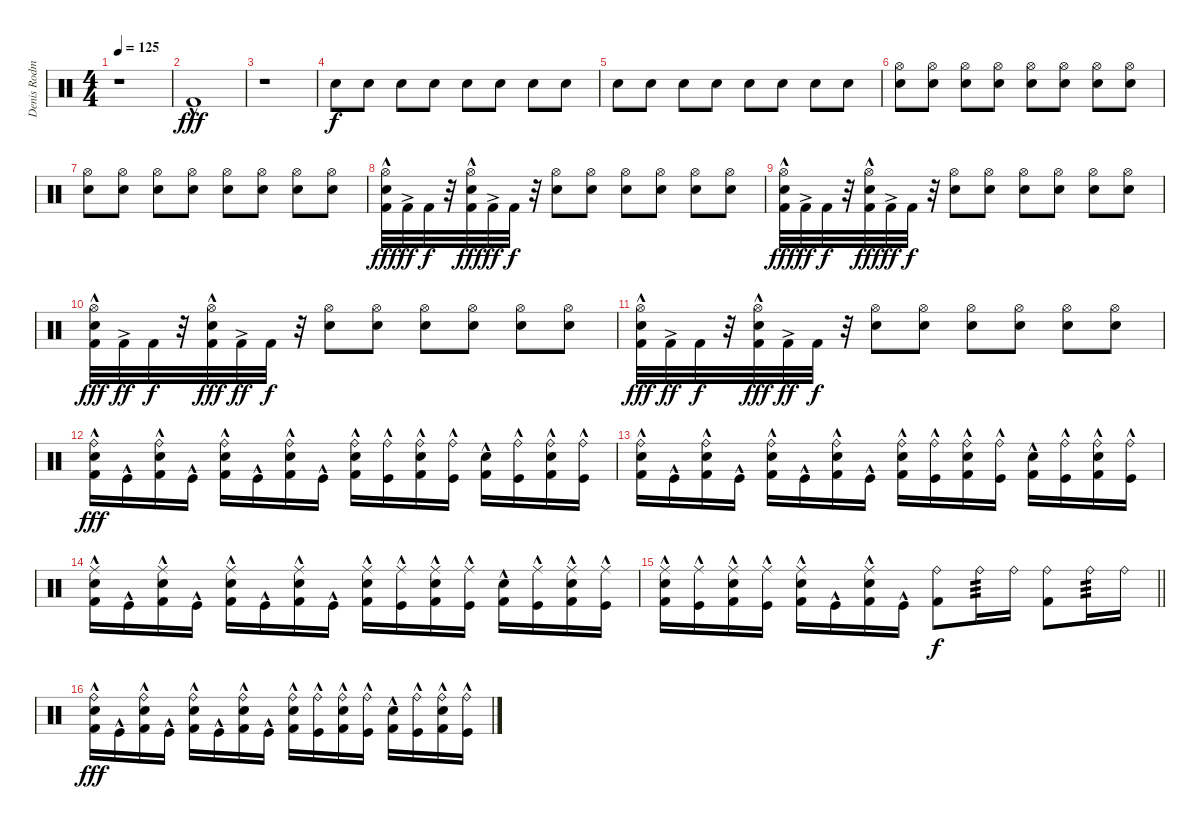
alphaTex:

\track ("Denis Rodman" "Denis Rodm") {instrument percussion}
\staff {score}
\articulation defaults
\ts (4 4)
\tempo 125
\clef neutral
\ks c
r.1{dy fff} |
"Kick (hit) 2"{hac}.1 |
r.1 |
"Snare (hit) 2".8{dy f} "Snare (hit) 2".8 "Snare (hit) 2".8 "Snare (hit) 2".8 "Snare (hit) 2".8 "Snare (hit) 2".8 "Snare (hit) 2".8 "Snare (hit) 2".8 |
"Snare (hit) 2".8 "Snare (hit) 2".8 "Snare (hit) 2".8 "Snare (hit) 2".8 "Snare (hit) 2".8 "Snare (hit) 2".8 "Snare (hit) 2".8 "Snare (hit) 2".8 |
("Snare (hit) 2" "Hi-Hat (open)").8 ("Snare (hit) 2" "Hi-Hat (open)").8 ("Snare (hit) 2" "Hi-Hat (open)").8 ("Snare (hit) 2" "Hi-Hat (open)").8 ("Snare (hit) 2" "Hi-Hat (open)").8 ("Snare (hit) 2" "Hi-Hat (open)").8 ("Snare (hit) 2" "Hi-Hat (open)").8 ("Snare (hit) 2" "Hi-Hat (open)").8 |
("Snare (hit) 2" "Hi-Hat (open)").8 ("Snare (hit) 2" "Hi-Hat (open)").8 ("Snare (hit) 2" "Hi-Hat (open)").8 ("Snare (hit) 2" "Hi-Hat (open)").8 ("Snare (hit) 2" "Hi-Hat (open)").8 ("Snare (hit) 2" "Hi-Hat (open)").8 ("Snare (hit) 2" "Hi-Hat (open)").8 ("Snare (hit) 2" "Hi-Hat (open)").8 |
("Kick (hit) 2"{hac} "Hi-Hat (open)" "Snare (hit) 2").32{dy fff} "Kick (hit) 2"{ac}.32{dy ff} "Kick (hit) 2".32{dy f} r.32 ("Kick (hit) 2"{hac} "Hi-Hat (open)" "Snare (hit) 2").32{dy fff} "Kick (hit) 2"{ac}.32{dy ff} "Kick (hit) 2".32{dy f} r.32 ("Hi-Hat (open)" "Snare (hit) 2").8 ("Hi-Hat (open)" "Snare (hit) 2").8 ("Hi-Hat (open)" "Snare (hit) 2").8 ("Hi-Hat (open)" "Snare (hit) 2").8 ("Hi-Hat (open)" "Snare (hit) 2").8 ("Hi-Hat (open)" "Snare (hit) 2").8 |
("Kick (hit) 2"{hac} "Hi-Hat (open)" "Snare (hit) 2").32{dy fff} "Kick (hit) 2"{ac}.32{dy ff} "Kick (hit) 2".32{dy f} r.32 ("Kick (hit) 2"{hac} "Hi-Hat (open)" "Snare (hit) 2").32{dy fff} "Kick (hit) 2"{ac}.32{dy ff} "Kick (hit) 2".32{dy f} r.32 ("Hi-Hat (open)" "Snare (hit) 2").8 ("Hi-Hat (open)" "Snare (hit) 2").8 ("Hi-Hat (open)" "Snare (hit) 2").8 ("Hi-Hat (open)" "Snare (hit) 2").8 ("Hi-Hat (open)" "Snare (hit) 2").8 ("Hi-Hat (open)" "Snare (hit) 2").8 |
("Kick (hit) 2"{hac} "Hi-Hat (open)" "Snare (hit) 2").32{dy fff} "Kick (hit) 2"{ac}.32{dy ff} "Kick (hit) 2".32{dy f} r.32 ("Kick (hit) 2"{hac} "Hi-Hat (open)" "Snare (hit) 2").32{dy fff} "Kick (hit) 2"{ac}.32{dy ff} "Kick (hit) 2".32{dy f} r.32 ("Hi-Hat (open)" "Snare (hit) 2").8 ("Hi-Hat (open)" "Snare (hit) 2").8 ("Hi-Hat (open)" "Snare (hit) 2").8 ("Hi-Hat (open)" "Snare (hit) 2").8 ("Hi-Hat (open)" "Snare (hit) 2").8 ("Hi-Hat (open)" "Snare (hit) 2").8 |
("Kick (hit) 2"{hac} "Hi-Hat (open)" "Snare (hit) 2").32{dy fff} "Kick (hit) 2"{ac}.32{dy ff} "Kick (hit) 2".32{dy f} r.32 ("Kick (hit) 2"{hac} "Hi-Hat (open)" "Snare (hit) 2").32{dy fff} "Kick (hit) 2"{ac}.32{dy ff} "Kick (hit) 2".32{dy f} r.32 ("Hi-Hat (open)" "Snare (hit) 2").8 ("Hi-Hat (open)" "Snare (hit) 2").8 ("Hi-Hat (open)" "Snare (hit) 2").8 ("Hi-Hat (open)" "Snare (hit) 2").8 ("Hi-Hat (open)" "Snare (hit) 2").8 ("Hi-Hat (open)" "Snare (hit) 2").8 |
("Ride (bell)"{hac} "Kick (hit) 2"{hac} "Snare (hit) 2").16{dy fff} "Kick (hit)"{hac}.16 ("Ride (bell)"{hac} "Kick (hit) 2"{hac} "Snare (hit) 2").16 "Kick (hit)"{hac}.16 ("Ride (bell)"{hac} "Kick (hit) 2"{hac} "Snare (hit) 2").16 "Kick (hit)"{hac}.16 ("Ride (bell)"{hac} "Kick (hit) 2"{hac} "Snare (hit) 2").16 "Kick (hit)"{hac}.16 ("Ride (bell)"{hac} "Kick (hit) 2"{hac} "Snare (hit) 2").16 ("Ride (bell)"{hac} "Kick (hit)"{hac}).16 ("Ride (bell)"{hac} "Kick (hit) 2"{hac} "Snare (hit) 2").16 ("Ride (bell)"{hac} "Kick (hit)"{hac}).16 ("Kick (hit) 2"{hac} "Snare (hit) 2").16 ("Ride (bell)"{hac} "Kick (hit)"{hac}).16 ("Ride (bell)"{hac} "Kick (hit) 2"{hac} "Snare (hit) 2").16 ("Ride (bell)"{hac} "Kick (hit)"{hac}).16 |
("Ride (bell)"{hac} "Kick (hit) 2"{hac} "Snare (hit) 2").16 "Kick (hit)"{hac}.16 ("Ride (bell)"{hac} "Kick (hit) 2"{hac} "Snare (hit) 2").16 "Kick (hit)"{hac}.16 ("Ride (bell)"{hac} "Kick (hit) 2"{hac} "Snare (hit) 2").16 "Kick (hit)"{hac}.16 ("Ride (bell)"{hac} "Kick (hit) 2"{hac} "Snare (hit) 2").16 "Kick (hit)"{hac}.16 ("Ride (bell)"{hac} "Kick (hit) 2"{hac} "Snare (hit) 2").16 ("Ride (bell)"{hac} "Kick (hit)"{hac}).16 ("Ride (bell)"{hac} "Kick (hit) 2"{hac} "Snare (hit) 2").16 ("Ride (bell)"{hac} "Kick (hit)"{hac}).16 ("Kick (hit) 2"{hac} "Snare (hit) 2").16 ("Ride (bell)"{hac} "Kick (hit)"{hac}).16 ("Ride (bell)"{hac} "Kick (hit) 2"{hac} "Snare (hit) 2").16 ("Ride (bell)"{hac} "Kick (hit)"{hac}).16 |
("Ride (middle)"{hac} "Kick (hit) 2"{hac} "Snare (hit) 2").16 "Kick (hit)"{hac}.16 ("Ride (middle)"{hac} "Kick (hit) 2"{hac} "Snare (hit) 2").16 "Kick (hit)"{hac}.16 ("Ride (middle)"{hac} "Kick (hit) 2"{hac} "Snare (hit) 2").16 "Kick (hit)"{hac}.16 ("Ride (middle)"{hac} "Kick (hit) 2"{hac} "Snare (hit) 2").16 "Kick (hit)"{hac}.16 ("Ride (middle)"{hac} "Kick (hit) 2"{hac} "Snare (hit) 2").16 ("Ride (middle)"{hac} "Kick (hit)"{hac}).16 ("Ride (middle)"{hac} "Kick (hit) 2"{hac} "Snare (hit) 2").16 ("Ride (middle)"{hac} "Kick (hit)"{hac}).16 ("Kick (hit) 2"{hac} "Snare (hit) 2").16 ("Ride (middle)"{hac} "Kick (hit)"{hac}).16 ("Ride (middle)"{hac} "Kick (hit) 2"{hac} "Snare (hit) 2").16 ("Ride (middle)"{hac} "Kick (hit)"{hac}).16 |
\barLineRight lightlight
("Ride (middle)"{hac} "Kick (hit) 2"{hac} "Snare (hit) 2").16 ("Ride (middle)"{hac} "Kick (hit)"{hac}).16 ("Ride (middle)"{hac} "Kick (hit) 2"{hac} "Snare (hit) 2").16 ("Ride (middle)"{hac} "Kick (hit)"{hac}).16 ("Ride (middle)"{hac} "Kick (hit) 2"{hac} "Snare (hit) 2").16 "Kick (hit)"{hac}.16 ("Ride (middle)"{hac} "Kick (hit) 2"{hac} "Snare (hit) 2").16 "Kick (hit)"{hac}.16 ("Ride (bell)" "Kick (hit) 2").8{dy f} "Ride (bell)".16{tp 3} "Ride (bell)".16 ("Ride (bell)" "Kick (hit) 2").8 "Ride (bell)".16{tp 3} "Ride (bell)".16 |
("Ride (bell)"{hac} "Kick (hit) 2"{hac} "Snare (hit) 2").16{dy fff} "Kick (hit)"{hac}.16 ("Ride (bell)"{hac} "Kick (hit) 2"{hac} "Snare (hit) 2").16 "Kick (hit)"{hac}.16 ("Ride (bell)"{hac} "Kick (hit) 2"{hac} "Snare (hit) 2").16 "Kick (hit)"{hac}.16 ("Ride (bell)"{hac} "Kick (hit) 2"{hac} "Snare (hit) 2").16 "Kick (hit)"{hac}.16 ("Ride (bell)"{hac} "Kick (hit) 2"{hac} "Snare (hit) 2").16 ("Ride (bell)"{hac} "Kick (hit)"{hac}).16 ("Ride (bell)"{hac} "Kick (hit) 2"{hac} "Snare (hit) 2").16 ("Ride (bell)"{hac} "Kick (hit)"{hac}).16 ("Kick (hit) 2"{hac} "Snare (hit) 2").16 ("Ride (bell)"{hac} "Kick (hit)"{hac}).16 ("Ride (bell)"{hac} "Kick (hit) 2"{hac} "Snare (hit) 2").16 ("Ride (bell)"{hac} "Kick (hit)"{hac}).16
